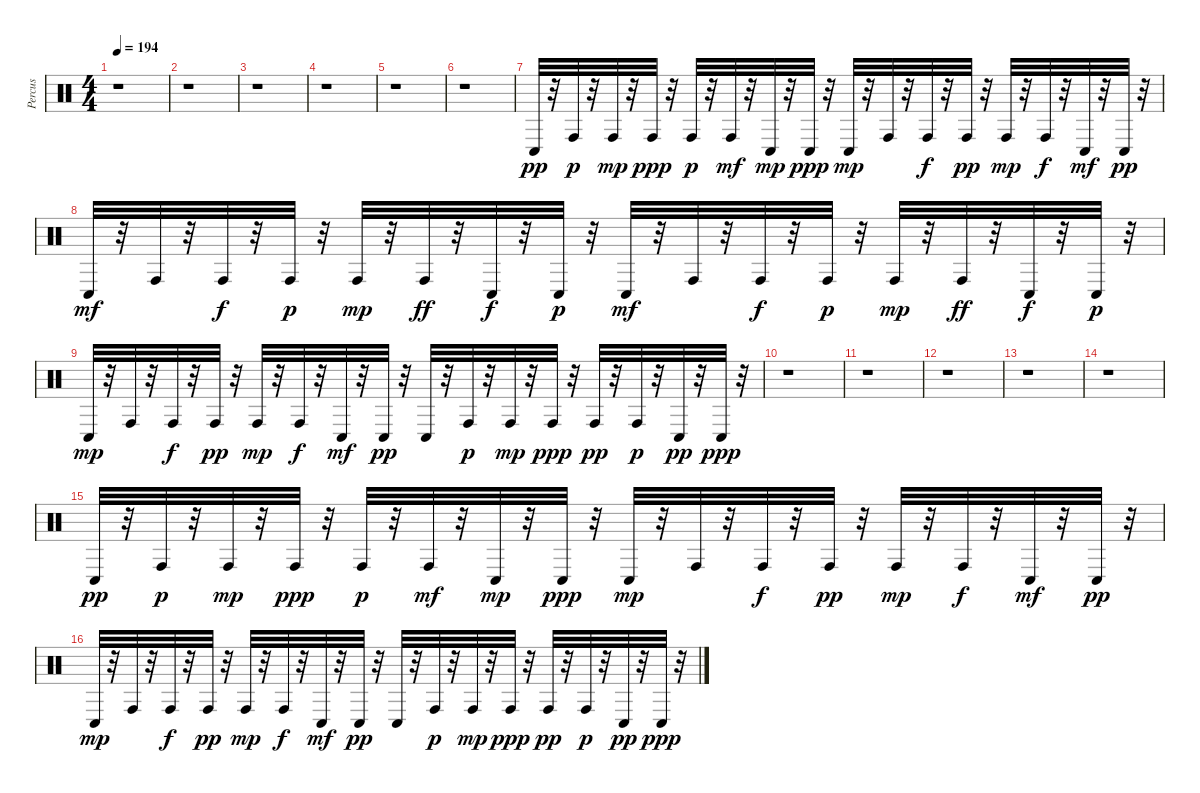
\track ("Percus" "Percus") {instrument percussion}
\staff {score}
\articulation defaults
\ts (4 4)
\tempo 194
\clef neutral
\ks c
r.1{dy f} |
r.1 |
r.1 |
r.1 |
r.1 |
r.1 |
"Conga low (hit)".32{dy pp} r.32 "Conga high (hit)".32{dy p} r.32 "Conga high (hit)".32{dy mp} r.32 "Conga high (hit)".32{dy ppp} r.32 "Conga high (hit)".32{dy p} r.32 "Conga high (hit)".32{dy mf} r.32 "Conga low (hit)".32{dy mp} r.32 "Conga low (hit)".32{dy ppp} r.32 "Conga low (hit)".32{dy mp} r.32 "Conga high (hit)".32 r.32 "Conga high (hit)".32{dy f} r.32 "Conga high (hit)".32{dy pp} r.32 "Conga high (hit)".32{dy mp} r.32 "Conga high (hit)".32{dy f} r.32 "Conga low (hit)".32{dy mf} r.32 "Conga low (hit)".32{dy pp} r.32 |
"Conga low (hit)".32{dy mf} r.32 "Conga high (hit)".32 r.32 "Conga high (hit)".32{dy f} r.32 "Conga high (hit)".32{dy p} r.32 "Conga high (hit)".32{dy mp} r.32 "Conga high (hit)".32{dy ff} r.32 "Conga low (hit)".32{dy f} r.32 "Conga low (hit)".32{dy p} r.32 "Conga low (hit)".32{dy mf} r.32 "Conga high (hit)".32 r.32 "Conga high (hit)".32{dy f} r.32 "Conga high (hit)".32{dy p} r.32 "Conga high (hit)".32{dy mp} r.32 "Conga high (hit)".32{dy ff} r.32 "Conga low (hit)".32{dy f} r.32 "Conga low (hit)".32{dy p} r.32 |
"Conga low (hit)".32{dy mp} r.32 "Conga high (hit)".32 r.32 "Conga high (hit)".32{dy f} r.32 "Conga high (hit)".32{dy pp} r.32 "Conga high (hit)".32{dy mp} r.32 "Conga high (hit)".32{dy f} r.32 "Conga low (hit)".32{dy mf} r.32 "Conga low (hit)".32{dy pp} r.32 "Conga low (hit)".32 r.32 "Conga high (hit)".32{dy p} r.32 "Conga high (hit)".32{dy mp} r.32 "Conga high (hit)".32{dy ppp} r.32 "Conga high (hit)".32{dy pp} r.32 "Conga high (hit)".32{dy p} r.32 "Conga low (hit)".32{dy pp} r.32 "Conga low (hit)".32{dy ppp} r.32 |
r.1 |
r.1 |
r.1 |
r.1 |
r.1 |
"Conga low (hit)".32{dy pp} r.32 "Conga high (hit)".32{dy p} r.32 "Conga high (hit)".32{dy mp} r.32 "Conga high (hit)".32{dy ppp} r.32 "Conga high (hit)".32{dy p} r.32 "Conga high (hit)".32{dy mf} r.32 "Conga low (hit)".32{dy mp} r.32 "Conga low (hit)".32{dy ppp} r.32 "Conga low (hit)".32{dy mp} r.32 "Conga high (hit)".32 r.32 "Conga high (hit)".32{dy f} r.32 "Conga high (hit)".32{dy pp} r.32 "Conga high (hit)".32{dy mp} r.32 "Conga high (hit)".32{dy f} r.32 "Conga low (hit)".32{dy mf} r.32 "Conga low (hit)".32{dy pp} r.32 |
"Conga low (hit)".32{dy mp} r.32 "Conga high (hit)".32 r.32 "Conga high (hit)".32{dy f} r.32 "Conga high (hit)".32{dy pp} r.32 "Conga high (hit)".32{dy mp} r.32 "Conga high (hit)".32{dy f} r.32 "Conga low (hit)".32{dy mf} r.32 "Conga low (hit)".32{dy pp} r.32 "Conga low (hit)".32 r.32 "Conga high (hit)".32{dy p} r.32 "Conga high (hit)".32{dy mp} r.32 "Conga high (hit)".32{dy ppp} r.32 "Conga high (hit)".32{dy pp} r.32 "Conga high (hit)".32{dy p} r.32 "Conga low (hit)".32{dy pp} r.32 "Conga low (hit)".32{dy ppp} r.32
